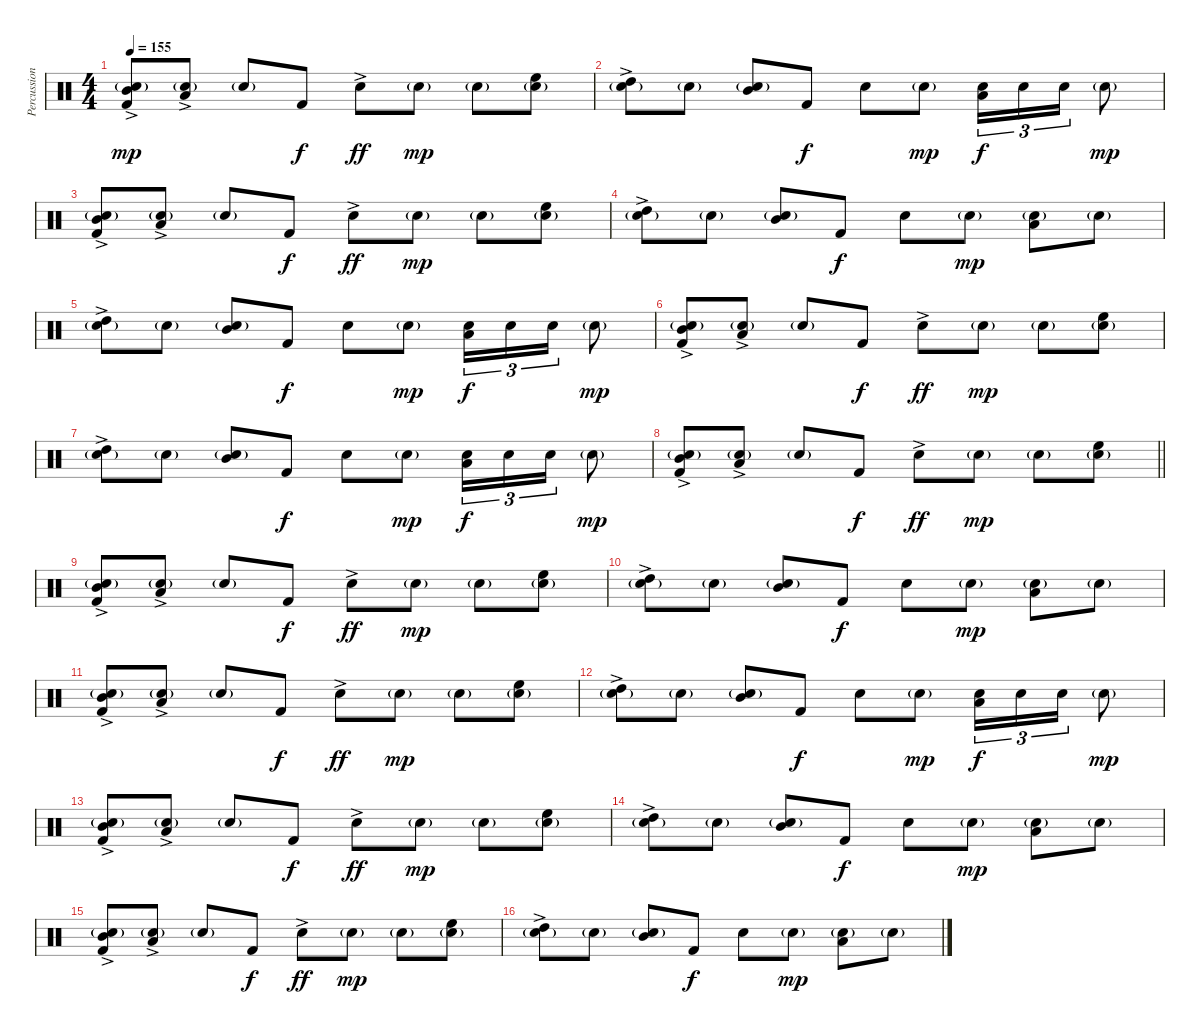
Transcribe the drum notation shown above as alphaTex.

\track ("Percussion" "Percussion") {instrument percussion}
\staff {score}
\articulation defaults
\ts (4 4)
\tempo 155
\clef neutral
\ks c
("Mid Tom (hit)"{ac} "Snare (hit) 2"{g} "Kick (hit) 2").8{dy mp} ("Low Tom (hit)"{ac} "Snare (hit) 2"{g}).8 "Snare (hit) 2"{g}.8 "Kick (hit) 2".8{dy f} "Snare (hit) 2"{ac}.8{dy ff} "Snare (hit) 2"{g}.8{dy mp} "Snare (hit) 2"{g}.8 ("High Floor Tom (hit)" "Snare (hit) 2"{g}).8 |
("High Tom (hit)"{ac} "Snare (hit) 2"{g}).8 "Snare (hit) 2"{g}.8 ("Mid Tom (hit)" "Snare (hit) 2"{g}).8 "Kick (hit) 2".8{dy f} "Snare (hit) 2".8 "Snare (hit) 2"{g}.8{dy mp} ("Low Tom (hit)" "Snare (hit) 2").16{tu (3 2) dy f} "Snare (hit) 2".16{tu (3 2)} "Snare (hit) 2".16{tu (3 2)} "Snare (hit) 2"{g}.8{dy mp} |
("Mid Tom (hit)"{ac} "Snare (hit) 2"{g} "Kick (hit) 2").8 ("Low Tom (hit)"{ac} "Snare (hit) 2"{g}).8 "Snare (hit) 2"{g}.8 "Kick (hit) 2".8{dy f} "Snare (hit) 2"{ac}.8{dy ff} "Snare (hit) 2"{g}.8{dy mp} "Snare (hit) 2"{g}.8 ("High Floor Tom (hit)" "Snare (hit) 2"{g}).8 |
("High Tom (hit)"{ac} "Snare (hit) 2"{g}).8 "Snare (hit) 2"{g}.8 ("Mid Tom (hit)" "Snare (hit) 2"{g}).8 "Kick (hit) 2".8{dy f} "Snare (hit) 2".8 "Snare (hit) 2"{g}.8{dy mp} ("Low Tom (hit)" "Snare (hit) 2"{g}).8 "Snare (hit) 2"{g}.8 |
("High Tom (hit)"{ac} "Snare (hit) 2"{g}).8 "Snare (hit) 2"{g}.8 ("Mid Tom (hit)" "Snare (hit) 2"{g}).8 "Kick (hit) 2".8{dy f} "Snare (hit) 2".8 "Snare (hit) 2"{g}.8{dy mp} ("Low Tom (hit)" "Snare (hit) 2").16{tu (3 2) dy f} "Snare (hit) 2".16{tu (3 2)} "Snare (hit) 2".16{tu (3 2)} "Snare (hit) 2"{g}.8{dy mp} |
("Mid Tom (hit)"{ac} "Snare (hit) 2"{g} "Kick (hit) 2").8 ("Low Tom (hit)"{ac} "Snare (hit) 2"{g}).8 "Snare (hit) 2"{g}.8 "Kick (hit) 2".8{dy f} "Snare (hit) 2"{ac}.8{dy ff} "Snare (hit) 2"{g}.8{dy mp} "Snare (hit) 2"{g}.8 ("High Floor Tom (hit)" "Snare (hit) 2"{g}).8 |
("High Tom (hit)"{ac} "Snare (hit) 2"{g}).8 "Snare (hit) 2"{g}.8 ("Mid Tom (hit)" "Snare (hit) 2"{g}).8 "Kick (hit) 2".8{dy f} "Snare (hit) 2".8 "Snare (hit) 2"{g}.8{dy mp} ("Low Tom (hit)" "Snare (hit) 2").16{tu (3 2) dy f} "Snare (hit) 2".16{tu (3 2)} "Snare (hit) 2".16{tu (3 2)} "Snare (hit) 2"{g}.8{dy mp} |
\barLineRight lightlight
("Mid Tom (hit)"{ac} "Snare (hit) 2"{g} "Kick (hit) 2").8 ("Low Tom (hit)"{ac} "Snare (hit) 2"{g}).8 "Snare (hit) 2"{g}.8 "Kick (hit) 2".8{dy f} "Snare (hit) 2"{ac}.8{dy ff} "Snare (hit) 2"{g}.8{dy mp} "Snare (hit) 2"{g}.8 ("High Floor Tom (hit)" "Snare (hit) 2"{g}).8 |
("Mid Tom (hit)"{ac} "Snare (hit) 2"{g} "Kick (hit) 2").8 ("Low Tom (hit)"{ac} "Snare (hit) 2"{g}).8 "Snare (hit) 2"{g}.8 "Kick (hit) 2".8{dy f} "Snare (hit) 2"{ac}.8{dy ff} "Snare (hit) 2"{g}.8{dy mp} "Snare (hit) 2"{g}.8 ("High Floor Tom (hit)" "Snare (hit) 2"{g}).8 |
("High Tom (hit)"{ac} "Snare (hit) 2"{g}).8 "Snare (hit) 2"{g}.8 ("Mid Tom (hit)" "Snare (hit) 2"{g}).8 "Kick (hit) 2".8{dy f} "Snare (hit) 2".8 "Snare (hit) 2"{g}.8{dy mp} ("Low Tom (hit)" "Snare (hit) 2"{g}).8 "Snare (hit) 2"{g}.8 |
("Mid Tom (hit)"{ac} "Snare (hit) 2"{g} "Kick (hit) 2").8 ("Low Tom (hit)"{ac} "Snare (hit) 2"{g}).8 "Snare (hit) 2"{g}.8 "Kick (hit) 2".8{dy f} "Snare (hit) 2"{ac}.8{dy ff} "Snare (hit) 2"{g}.8{dy mp} "Snare (hit) 2"{g}.8 ("High Floor Tom (hit)" "Snare (hit) 2"{g}).8 |
("High Tom (hit)"{ac} "Snare (hit) 2"{g}).8 "Snare (hit) 2"{g}.8 ("Mid Tom (hit)" "Snare (hit) 2"{g}).8 "Kick (hit) 2".8{dy f} "Snare (hit) 2".8 "Snare (hit) 2"{g}.8{dy mp} ("Low Tom (hit)" "Snare (hit) 2").16{tu (3 2) dy f} "Snare (hit) 2".16{tu (3 2)} "Snare (hit) 2".16{tu (3 2)} "Snare (hit) 2"{g}.8{dy mp} |
("Mid Tom (hit)"{ac} "Snare (hit) 2"{g} "Kick (hit) 2").8 ("Low Tom (hit)"{ac} "Snare (hit) 2"{g}).8 "Snare (hit) 2"{g}.8 "Kick (hit) 2".8{dy f} "Snare (hit) 2"{ac}.8{dy ff} "Snare (hit) 2"{g}.8{dy mp} "Snare (hit) 2"{g}.8 ("High Floor Tom (hit)" "Snare (hit) 2"{g}).8 |
("High Tom (hit)"{ac} "Snare (hit) 2"{g}).8 "Snare (hit) 2"{g}.8 ("Mid Tom (hit)" "Snare (hit) 2"{g}).8 "Kick (hit) 2".8{dy f} "Snare (hit) 2".8 "Snare (hit) 2"{g}.8{dy mp} ("Low Tom (hit)" "Snare (hit) 2"{g}).8 "Snare (hit) 2"{g}.8 |
("Mid Tom (hit)"{ac} "Snare (hit) 2"{g} "Kick (hit) 2").8 ("Low Tom (hit)"{ac} "Snare (hit) 2"{g}).8 "Snare (hit) 2"{g}.8 "Kick (hit) 2".8{dy f} "Snare (hit) 2"{ac}.8{dy ff} "Snare (hit) 2"{g}.8{dy mp} "Snare (hit) 2"{g}.8 ("High Floor Tom (hit)" "Snare (hit) 2"{g}).8 |
("High Tom (hit)"{ac} "Snare (hit) 2"{g}).8 "Snare (hit) 2"{g}.8 ("Mid Tom (hit)" "Snare (hit) 2"{g}).8 "Kick (hit) 2".8{dy f} "Snare (hit) 2".8 "Snare (hit) 2"{g}.8{dy mp} ("Low Tom (hit)" "Snare (hit) 2"{g}).8 "Snare (hit) 2"{g}.8
